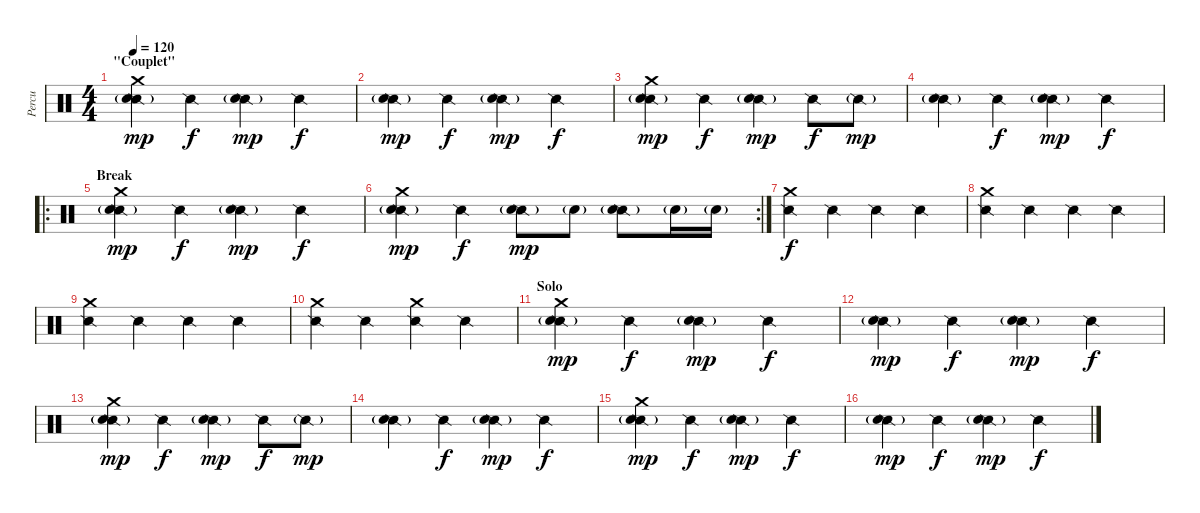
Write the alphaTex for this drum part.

\track ("Percu" "Percu") {instrument percussion}
\staff {score}
\articulation defaults
\ts (4 4)
\section ("" "\"Couplet\"")
\tempo 120
\clef neutral
\ks c
("Snare (side stick) 2" "Crash medium (hit)" "Electric Snare (hit)"{g}).4{dy mp} "Snare (side stick) 2".4{dy f} ("Snare (side stick) 2" "Electric Snare (hit)"{g}).4{dy mp} "Snare (side stick) 2".4{dy f} |
("Snare (side stick) 2" "Electric Snare (hit)"{g}).4{dy mp} "Snare (side stick) 2".4{dy f} ("Snare (side stick) 2" "Electric Snare (hit)"{g}).4{dy mp} "Snare (side stick) 2".4{dy f} |
("Snare (side stick) 2" "Crash medium (hit)" "Electric Snare (hit)"{g}).4{dy mp} "Snare (side stick) 2".4{dy f} ("Snare (side stick) 2" "Electric Snare (hit)"{g}).4{dy mp} "Snare (side stick) 2".8{dy f} "Snare (side stick) 2"{g}.8{dy mp} |
("Snare (side stick) 2" "Electric Snare (hit)"{g}).4 "Snare (side stick) 2".4{dy f} ("Snare (side stick) 2" "Electric Snare (hit)"{g}).4{dy mp} "Snare (side stick) 2".4{dy f} |
\ro
\section ("" "Break")
("Snare (side stick) 2" "Crash medium (hit)" "Electric Snare (hit)"{g}).4{dy mp} "Snare (side stick) 2".4{dy f} ("Snare (side stick) 2" "Electric Snare (hit)"{g}).4{dy mp} "Snare (side stick) 2".4{dy f} |
\rc 2
("Snare (side stick) 2" "Crash medium (hit)" "Electric Snare (hit)"{g}).4{dy mp} "Snare (side stick) 2".4{dy f} ("Snare (side stick) 2" "Electric Snare (hit)"{g}).8{dy mp} "Electric Snare (hit)"{g}.8 ("Snare (side stick) 2" "Electric Snare (hit)"{g}).8 "Electric Snare (hit)"{g}.16 "Electric Snare (hit)"{g}.16 |
("Snare (side stick) 2" "Crash medium (hit)").4{dy f} "Snare (side stick) 2".4 "Snare (side stick) 2".4 "Snare (side stick) 2".4 |
("Snare (side stick) 2" "Crash medium (hit)").4 "Snare (side stick) 2".4 "Snare (side stick) 2".4 "Snare (side stick) 2".4 |
("Snare (side stick) 2" "Crash medium (hit)").4 "Snare (side stick) 2".4 "Snare (side stick) 2".4 "Snare (side stick) 2".4 |
("Snare (side stick) 2" "Crash medium (hit)").4 "Snare (side stick) 2".4 ("Snare (side stick) 2" "Crash medium (hit)").4 "Snare (side stick) 2".4 |
\section ("" "Solo")
("Snare (side stick) 2" "Crash medium (hit)" "Electric Snare (hit)"{g}).4{dy mp} "Snare (side stick) 2".4{dy f} ("Snare (side stick) 2" "Electric Snare (hit)"{g}).4{dy mp} "Snare (side stick) 2".4{dy f} |
("Snare (side stick) 2" "Electric Snare (hit)"{g}).4{dy mp} "Snare (side stick) 2".4{dy f} ("Snare (side stick) 2" "Electric Snare (hit)"{g}).4{dy mp} "Snare (side stick) 2".4{dy f} |
("Snare (side stick) 2" "Crash medium (hit)" "Electric Snare (hit)"{g}).4{dy mp} "Snare (side stick) 2".4{dy f} ("Snare (side stick) 2" "Electric Snare (hit)"{g}).4{dy mp} "Snare (side stick) 2".8{dy f} "Snare (side stick) 2"{g}.8{dy mp} |
("Snare (side stick) 2" "Electric Snare (hit)"{g}).4 "Snare (side stick) 2".4{dy f} ("Snare (side stick) 2" "Electric Snare (hit)"{g}).4{dy mp} "Snare (side stick) 2".4{dy f} |
("Snare (side stick) 2" "Crash medium (hit)" "Electric Snare (hit)"{g}).4{dy mp} "Snare (side stick) 2".4{dy f} ("Snare (side stick) 2" "Electric Snare (hit)"{g}).4{dy mp} "Snare (side stick) 2".4{dy f} |
("Snare (side stick) 2" "Electric Snare (hit)"{g}).4{dy mp} "Snare (side stick) 2".4{dy f} ("Snare (side stick) 2" "Electric Snare (hit)"{g}).4{dy mp} "Snare (side stick) 2".4{dy f}
